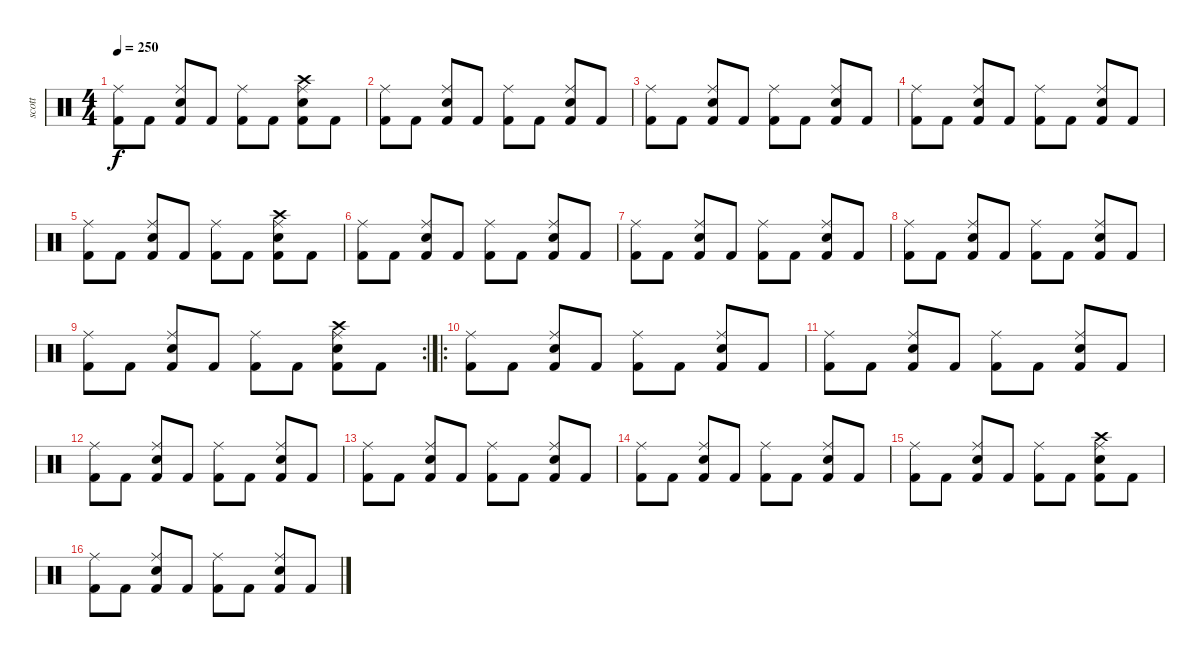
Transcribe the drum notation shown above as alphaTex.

\track ("scott" "scott") {instrument percussion bank 10}
\staff {score}
\articulation defaults
\ts (4 4)
\tempo 250
\clef neutral
\ks c
("Kick (hit) 2" "Ride (middle)").8{dy f} "Kick (hit) 2".8 ("Kick (hit) 2" "Snare (hit) 2" "Ride (middle)").8 "Kick (hit) 2".8 ("Kick (hit) 2" "Ride (middle)").8 "Kick (hit) 2".8 ("Kick (hit) 2" "Snare (hit) 2" "Ride (middle)" "Crash high (hit)").8 "Kick (hit) 2".8 |
("Kick (hit) 2" "Ride (middle)").8 "Kick (hit) 2".8 ("Kick (hit) 2" "Snare (hit) 2" "Ride (middle)").8 "Kick (hit) 2".8 ("Kick (hit) 2" "Ride (middle)").8 "Kick (hit) 2".8 ("Kick (hit) 2" "Snare (hit) 2" "Ride (middle)").8 "Kick (hit) 2".8 |
("Kick (hit) 2" "Ride (middle)").8 "Kick (hit) 2".8 ("Kick (hit) 2" "Snare (hit) 2" "Ride (middle)").8 "Kick (hit) 2".8 ("Kick (hit) 2" "Ride (middle)").8 "Kick (hit) 2".8 ("Kick (hit) 2" "Snare (hit) 2" "Ride (middle)").8 "Kick (hit) 2".8 |
("Kick (hit) 2" "Ride (middle)").8 "Kick (hit) 2".8 ("Kick (hit) 2" "Snare (hit) 2" "Ride (middle)").8 "Kick (hit) 2".8 ("Kick (hit) 2" "Ride (middle)").8 "Kick (hit) 2".8 ("Kick (hit) 2" "Snare (hit) 2" "Ride (middle)").8 "Kick (hit) 2".8 |
("Kick (hit) 2" "Ride (middle)").8 "Kick (hit) 2".8 ("Kick (hit) 2" "Snare (hit) 2" "Ride (middle)").8 "Kick (hit) 2".8 ("Kick (hit) 2" "Ride (middle)").8 "Kick (hit) 2".8 ("Kick (hit) 2" "Snare (hit) 2" "Ride (middle)" "Crash high (hit)").8 "Kick (hit) 2".8 |
("Kick (hit) 2" "Ride (middle)").8 "Kick (hit) 2".8 ("Kick (hit) 2" "Snare (hit) 2" "Ride (middle)").8 "Kick (hit) 2".8 ("Kick (hit) 2" "Ride (middle)").8 "Kick (hit) 2".8 ("Kick (hit) 2" "Snare (hit) 2" "Ride (middle)").8 "Kick (hit) 2".8 |
("Kick (hit) 2" "Ride (middle)").8 "Kick (hit) 2".8 ("Kick (hit) 2" "Snare (hit) 2" "Ride (middle)").8 "Kick (hit) 2".8 ("Kick (hit) 2" "Ride (middle)").8 "Kick (hit) 2".8 ("Kick (hit) 2" "Snare (hit) 2" "Ride (middle)").8 "Kick (hit) 2".8 |
("Kick (hit) 2" "Ride (middle)").8 "Kick (hit) 2".8 ("Kick (hit) 2" "Snare (hit) 2" "Ride (middle)").8 "Kick (hit) 2".8 ("Kick (hit) 2" "Ride (middle)").8 "Kick (hit) 2".8 ("Kick (hit) 2" "Snare (hit) 2" "Ride (middle)").8 "Kick (hit) 2".8 |
\rc 2
("Kick (hit) 2" "Ride (middle)").8 "Kick (hit) 2".8 ("Kick (hit) 2" "Snare (hit) 2" "Ride (middle)").8 "Kick (hit) 2".8 ("Kick (hit) 2" "Ride (middle)").8 "Kick (hit) 2".8 ("Kick (hit) 2" "Snare (hit) 2" "Ride (middle)" "Crash high (hit)").8 "Kick (hit) 2".8 |
\ro
("Kick (hit) 2" "Ride (middle)").8 "Kick (hit) 2".8 ("Kick (hit) 2" "Snare (hit) 2" "Ride (middle)").8 "Kick (hit) 2".8 ("Kick (hit) 2" "Ride (middle)").8 "Kick (hit) 2".8 ("Kick (hit) 2" "Snare (hit) 2" "Ride (middle)").8 "Kick (hit) 2".8 |
("Kick (hit) 2" "Ride (middle)").8 "Kick (hit) 2".8 ("Kick (hit) 2" "Snare (hit) 2" "Ride (middle)").8 "Kick (hit) 2".8 ("Kick (hit) 2" "Ride (middle)").8 "Kick (hit) 2".8 ("Kick (hit) 2" "Snare (hit) 2" "Ride (middle)").8 "Kick (hit) 2".8 |
("Kick (hit) 2" "Ride (middle)").8 "Kick (hit) 2".8 ("Kick (hit) 2" "Snare (hit) 2" "Ride (middle)").8 "Kick (hit) 2".8 ("Kick (hit) 2" "Ride (middle)").8 "Kick (hit) 2".8 ("Kick (hit) 2" "Snare (hit) 2" "Ride (middle)").8 "Kick (hit) 2".8 |
("Kick (hit) 2" "Ride (middle)").8 "Kick (hit) 2".8 ("Kick (hit) 2" "Snare (hit) 2" "Ride (middle)").8 "Kick (hit) 2".8 ("Kick (hit) 2" "Ride (middle)").8 "Kick (hit) 2".8 ("Kick (hit) 2" "Snare (hit) 2" "Ride (middle)").8 "Kick (hit) 2".8 |
("Kick (hit) 2" "Ride (middle)").8 "Kick (hit) 2".8 ("Kick (hit) 2" "Snare (hit) 2" "Ride (middle)").8 "Kick (hit) 2".8 ("Kick (hit) 2" "Ride (middle)").8 "Kick (hit) 2".8 ("Kick (hit) 2" "Snare (hit) 2" "Ride (middle)").8 "Kick (hit) 2".8 |
("Kick (hit) 2" "Ride (middle)").8 "Kick (hit) 2".8 ("Kick (hit) 2" "Snare (hit) 2" "Ride (middle)").8 "Kick (hit) 2".8 ("Kick (hit) 2" "Ride (middle)").8 "Kick (hit) 2".8 ("Kick (hit) 2" "Snare (hit) 2" "Ride (middle)" "Crash high (hit)").8 "Kick (hit) 2".8 |
("Kick (hit) 2" "Ride (middle)").8 "Kick (hit) 2".8 ("Kick (hit) 2" "Snare (hit) 2" "Ride (middle)").8 "Kick (hit) 2".8 ("Kick (hit) 2" "Ride (middle)").8 "Kick (hit) 2".8 ("Kick (hit) 2" "Snare (hit) 2" "Ride (middle)").8 "Kick (hit) 2".8
